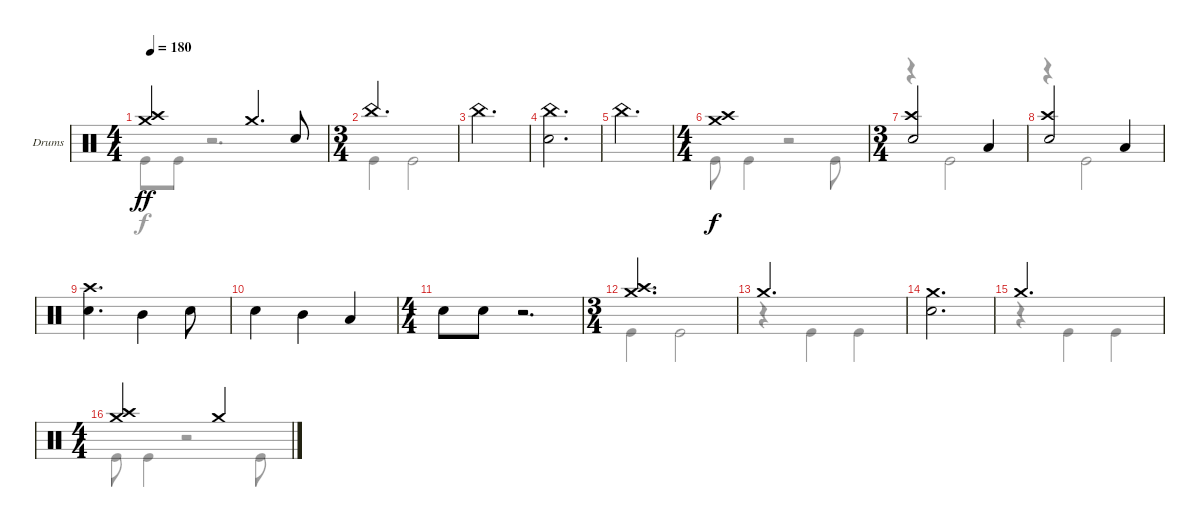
\bracketExtendMode groupsimilarinstruments
\firstSystemTrackNameOrientation horizontal
\otherSystemsTrackNameOrientation horizontal
\track ("Drumkit" "Drums") {instrument percussion}
\staff {score}
\articulation defaults
\voice
\ts (4 4)
\beaming (8 2 2 2 2)
\tempo 180
\clef neutral
\ks c
("Crash high (hit)" "Crash medium (hit)").2{dy ff} "Crash medium (hit)".4{d} "Snare (hit) 2".8 |
\ts (3 4)
\beaming (8 2 2 2)
"China (hit)".2{d} |
"China (hit)".2{d} |
("China (hit)" "Snare (hit) 2").2{d} |
"China (hit)".2{d} |
\ts (4 4)
\beaming (8 2 2 2 2)
("Crash high (hit)" "Crash medium (hit)").1{dy f} |
\ts (3 4)
\beaming (8 2 2 2)
("Crash high (hit)" "Snare (hit) 2").2 "Low Tom (hit)".4 |
("Crash high (hit)" "Snare (hit) 2").2 "Low Tom (hit)".4 |
("Crash high (hit)" "Snare (hit) 2").4{d} "Mid Tom (hit)".4 "Snare (hit) 2".8 |
"Snare (hit) 2".4 "Mid Tom (hit)".4 "Low Tom (hit)".4 |
\ts (4 4)
\beaming (8 2 2 2 2)
"Snare (hit) 2".8 "Snare (hit) 2".8 r.2{d} |
\ts (3 4)
\beaming (8 2 2 2)
("Crash high (hit)" "Crash medium (hit)").2{d} |
"Crash medium (hit)".2{d} |
("Crash medium (hit)" "Snare (hit) 2").2{d} |
"Crash medium (hit)".2{d} |
\ts (4 4)
\beaming (8 2 2 2 2)
("Crash high (hit)" "Crash medium (hit)").2 "Crash medium (hit)".2
\voice
\clef neutral
\ottava regular
\simile none
\ks c "Kick (hit)".8{dy f} "Kick (hit)".8
r.2{d} |
"Kick (hit)".4 "Kick (hit)".2 |
|
|
|
"Kick (hit)".8 "Kick (hit)".4 r.2 "Kick (hit)".8 |
r.4 "Kick (hit)".2 |
r.4 "Kick (hit)".2 |
|
|
|
"Kick (hit)".4 "Kick (hit)".2 |
r.4 "Kick (hit)".4 "Kick (hit)".4 |
|
r.4 "Kick (hit)".4 "Kick (hit)".4 |
"Kick (hit)".8 "Kick (hit)".4 r.2 "Kick (hit)".8
